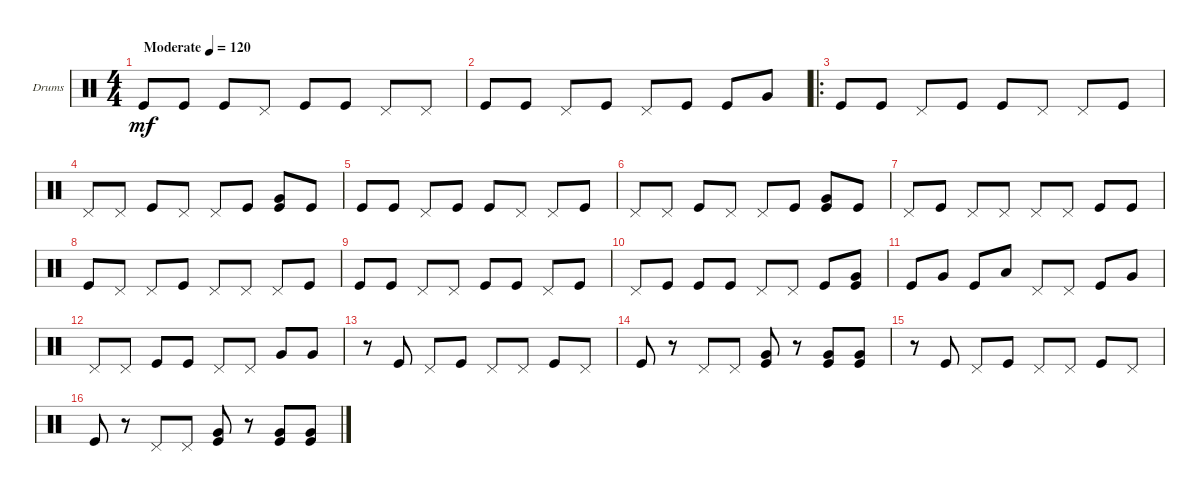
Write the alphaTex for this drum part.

\bracketExtendMode groupsimilarinstruments
\firstSystemTrackNameOrientation horizontal
\otherSystemsTrackNameOrientation horizontal
\track ("Drumkit" "Drums") {instrument percussion}
\staff {score}
\articulation defaults
\ts (4 4)
\beaming (8 2 2 2 2)
\tempo (120 "Moderate")
\clef neutral
\scale
0.448889
\ks c "Kick (hit)".8{dy mf} "Kick (hit)".8 "Kick (hit)".8 "Pedal Hi-Hat (hit)".8 "Kick (hit)".8 "Kick (hit)".8 "Pedal Hi-Hat (hit)".8 "Pedal Hi-Hat (hit)".8
|
\scale
0.248889 "Kick (hit)".8 "Kick (hit)".8 "Pedal Hi-Hat (hit)".8 "Kick (hit)".8 "Pedal Hi-Hat (hit)".8 "Kick (hit)".8 "Kick (hit)".8 "Very Low Tom (hit)".8 |
\ro
\scale
0.302222 "Kick (hit)".8 "Kick (hit)".8 "Pedal Hi-Hat (hit)".8 "Kick (hit)".8 "Kick (hit)".8 "Pedal Hi-Hat (hit)".8 "Pedal Hi-Hat (hit)".8 "Kick (hit)".8 |
\scale
0.333333 "Pedal Hi-Hat (hit)".8 "Pedal Hi-Hat (hit)".8 "Kick (hit)".8 "Pedal Hi-Hat (hit)".8 "Pedal Hi-Hat (hit)".8 "Kick (hit)".8 ("Very Low Tom (hit)" "Kick (hit)").8 "Kick (hit)".8 |
\scale
0.333333 "Kick (hit)".8 "Kick (hit)".8 "Pedal Hi-Hat (hit)".8 "Kick (hit)".8 "Kick (hit)".8 "Pedal Hi-Hat (hit)".8 "Pedal Hi-Hat (hit)".8 "Kick (hit)".8 |
\scale
0.333333 "Pedal Hi-Hat (hit)".8 "Pedal Hi-Hat (hit)".8 "Kick (hit)".8 "Pedal Hi-Hat (hit)".8 "Pedal Hi-Hat (hit)".8 "Kick (hit)".8 ("Very Low Tom (hit)" "Kick (hit)").8 "Kick (hit)".8 |
\scale
0.333333 "Pedal Hi-Hat (hit)".8 "Kick (hit)".8 "Pedal Hi-Hat (hit)".8 "Pedal Hi-Hat (hit)".8 "Pedal Hi-Hat (hit)".8 "Pedal Hi-Hat (hit)".8 "Kick (hit)".8 "Kick (hit)".8 |
\scale
0.333333 "Kick (hit)".8 "Pedal Hi-Hat (hit)".8 "Pedal Hi-Hat (hit)".8 "Kick (hit)".8 "Pedal Hi-Hat (hit)".8 "Pedal Hi-Hat (hit)".8 "Pedal Hi-Hat (hit)".8 "Kick (hit)".8 |
\scale
0.333333 "Kick (hit)".8 "Kick (hit)".8 "Pedal Hi-Hat (hit)".8 "Pedal Hi-Hat (hit)".8 "Kick (hit)".8 "Kick (hit)".8 "Pedal Hi-Hat (hit)".8 "Kick (hit)".8 |
\scale
0.333333 "Pedal Hi-Hat (hit)".8 "Kick (hit)".8 "Kick (hit)".8 "Kick (hit)".8 "Pedal Hi-Hat (hit)".8 "Pedal Hi-Hat (hit)".8 "Kick (hit)".8 ("Kick (hit)" "Very Low Tom (hit)").8 |
\scale
0.333333 "Kick (hit)".8 "Very Low Tom (hit)".8 "Kick (hit)".8 "Low Tom (hit)".8 "Pedal Hi-Hat (hit)".8 "Pedal Hi-Hat (hit)".8 "Kick (hit)".8 "Very Low Tom (hit)".8 |
\scale
0.333333 "Pedal Hi-Hat (hit)".8 "Pedal Hi-Hat (hit)".8 "Kick (hit)".8 "Kick (hit)".8 "Pedal Hi-Hat (hit)".8 "Pedal Hi-Hat (hit)".8 "Very Low Tom (hit)".8 "Very Low Tom (hit)".8 |
\scale
0.333333 r.8 "Kick (hit)".8 "Pedal Hi-Hat (hit)".8 "Kick (hit)".8 "Pedal Hi-Hat (hit)".8 "Pedal Hi-Hat (hit)".8 "Kick (hit)".8 "Pedal Hi-Hat (hit)".8 |
\scale
0.333333 "Kick (hit)".8 r.8 "Pedal Hi-Hat (hit)".8 "Pedal Hi-Hat (hit)".8 ("Kick (hit)" "Very Low Tom (hit)").8 r.8 ("Kick (hit)" "Very Low Tom (hit)").8 ("Kick (hit)" "Very Low Tom (hit)").8 |
\scale
0.333333 r.8 "Kick (hit)".8 "Pedal Hi-Hat (hit)".8 "Kick (hit)".8 "Pedal Hi-Hat (hit)".8 "Pedal Hi-Hat (hit)".8 "Kick (hit)".8 "Pedal Hi-Hat (hit)".8 |
"Kick (hit)".8 r.8 "Pedal Hi-Hat (hit)".8 "Pedal Hi-Hat (hit)".8 ("Kick (hit)" "Very Low Tom (hit)").8 r.8 ("Kick (hit)" "Very Low Tom (hit)").8 ("Kick (hit)" "Very Low Tom (hit)").8
